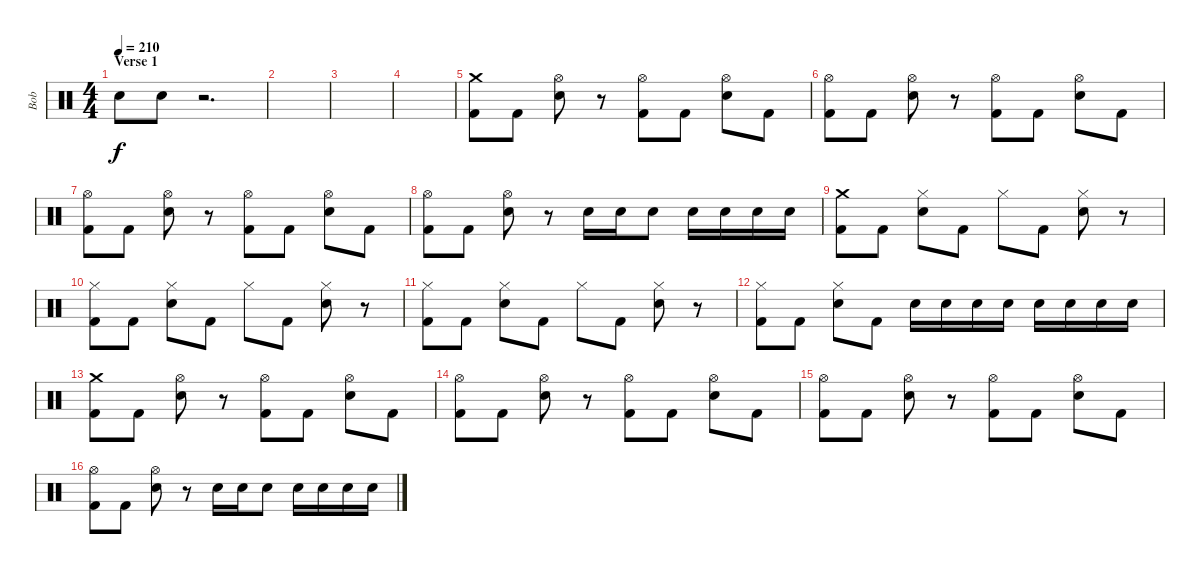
\track ("Bob" "Bob") {instrument percussion}
\staff {score}
\articulation defaults
\ts (4 4)
\section ("" "Verse 1")
\tempo 210
\clef neutral
\ks c "Electric Snare (hit)".8{dy f} "Electric Snare (hit)".8
r.2{d} |
|
|
|
("Crash medium (hit)" "Kick (hit) 2").8 "Kick (hit) 2".8 ("Hi-Hat (open)" "Electric Snare (hit)").8 r.8 ("Hi-Hat (open)" "Kick (hit) 2").8 "Kick (hit) 2".8 ("Hi-Hat (open)" "Electric Snare (hit)").8 "Kick (hit) 2".8 |
("Hi-Hat (open)" "Kick (hit) 2").8 "Kick (hit) 2".8 ("Hi-Hat (open)" "Electric Snare (hit)").8 r.8 ("Hi-Hat (open)" "Kick (hit) 2").8 "Kick (hit) 2".8 ("Hi-Hat (open)" "Electric Snare (hit)").8 "Kick (hit) 2".8 |
("Hi-Hat (open)" "Kick (hit) 2").8 "Kick (hit) 2".8 ("Hi-Hat (open)" "Electric Snare (hit)").8 r.8 ("Hi-Hat (open)" "Kick (hit) 2").8 "Kick (hit) 2".8 ("Hi-Hat (open)" "Electric Snare (hit)").8 "Kick (hit) 2".8 |
("Hi-Hat (open)" "Kick (hit) 2").8 "Kick (hit) 2".8 ("Hi-Hat (open)" "Electric Snare (hit)").8 r.8 "Electric Snare (hit)".16 "Electric Snare (hit)".16 "Electric Snare (hit)".8 "Electric Snare (hit)".16 "Electric Snare (hit)".16 "Electric Snare (hit)".16 "Electric Snare (hit)".16 |
("Crash medium (hit)" "Kick (hit) 2").8 "Kick (hit) 2".8 ("Hi-Hat (closed)" "Electric Snare (hit)").8 "Kick (hit) 2".8 "Hi-Hat (closed)".8 "Kick (hit) 2".8 ("Hi-Hat (closed)" "Electric Snare (hit)").8 r.8 |
("Hi-Hat (closed)" "Kick (hit) 2").8 "Kick (hit) 2".8 ("Hi-Hat (closed)" "Electric Snare (hit)").8 "Kick (hit) 2".8 "Hi-Hat (closed)".8 "Kick (hit) 2".8 ("Hi-Hat (closed)" "Electric Snare (hit)").8 r.8 |
("Hi-Hat (closed)" "Kick (hit) 2").8 "Kick (hit) 2".8 ("Hi-Hat (closed)" "Electric Snare (hit)").8 "Kick (hit) 2".8 "Hi-Hat (closed)".8 "Kick (hit) 2".8 ("Hi-Hat (closed)" "Electric Snare (hit)").8 r.8 |
("Hi-Hat (closed)" "Kick (hit) 2").8 "Kick (hit) 2".8 ("Hi-Hat (closed)" "Electric Snare (hit)").8 "Kick (hit) 2".8 "Electric Snare (hit)".16 "Electric Snare (hit)".16 "Electric Snare (hit)".16 "Electric Snare (hit)".16 "Electric Snare (hit)".16 "Electric Snare (hit)".16 "Electric Snare (hit)".16 "Electric Snare (hit)".16 |
("Crash medium (hit)" "Kick (hit) 2").8 "Kick (hit) 2".8 ("Hi-Hat (open)" "Electric Snare (hit)").8 r.8 ("Hi-Hat (open)" "Kick (hit) 2").8 "Kick (hit) 2".8 ("Hi-Hat (open)" "Electric Snare (hit)").8 "Kick (hit) 2".8 |
("Hi-Hat (open)" "Kick (hit) 2").8 "Kick (hit) 2".8 ("Hi-Hat (open)" "Electric Snare (hit)").8 r.8 ("Hi-Hat (open)" "Kick (hit) 2").8 "Kick (hit) 2".8 ("Hi-Hat (open)" "Electric Snare (hit)").8 "Kick (hit) 2".8 |
("Hi-Hat (open)" "Kick (hit) 2").8 "Kick (hit) 2".8 ("Hi-Hat (open)" "Electric Snare (hit)").8 r.8 ("Hi-Hat (open)" "Kick (hit) 2").8 "Kick (hit) 2".8 ("Hi-Hat (open)" "Electric Snare (hit)").8 "Kick (hit) 2".8 |
("Hi-Hat (open)" "Kick (hit) 2").8 "Kick (hit) 2".8 ("Hi-Hat (open)" "Electric Snare (hit)").8 r.8 "Electric Snare (hit)".16 "Electric Snare (hit)".16 "Electric Snare (hit)".8 "Electric Snare (hit)".16 "Electric Snare (hit)".16 "Electric Snare (hit)".16 "Electric Snare (hit)".16
